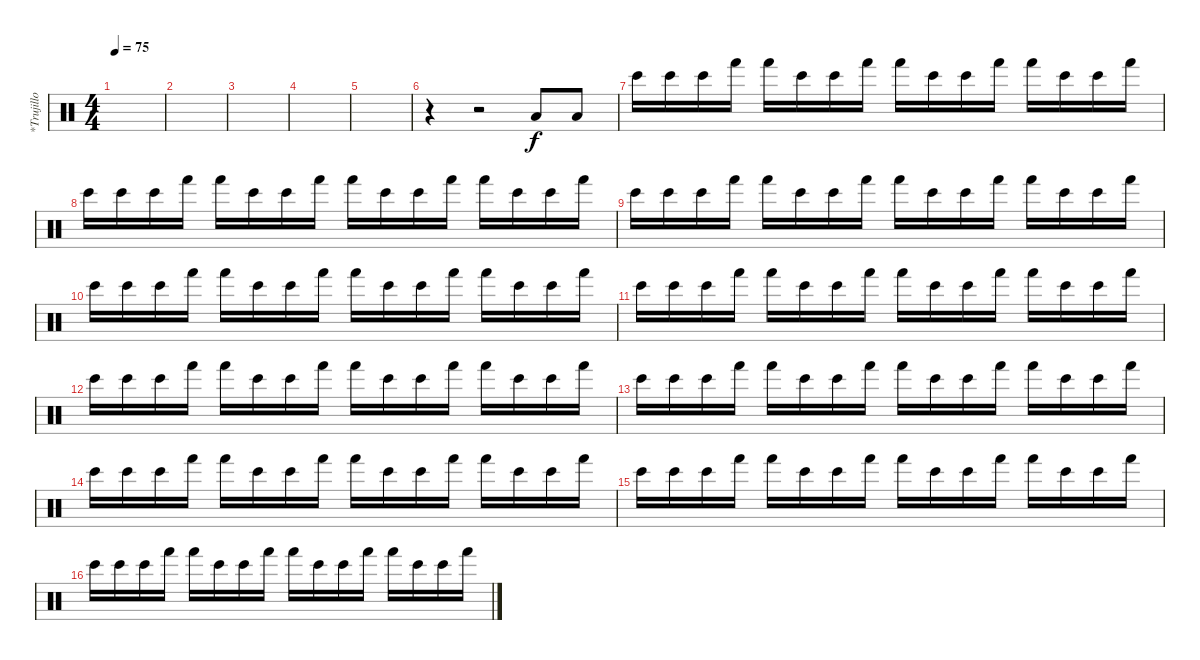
\track ("*Trujillo" "*Trujillo") {instrument percussion}
\staff {score}
\articulation defaults
\ts (4 4)
\tempo 75
\clef neutral
\ks c
|
|
|
|
|
r.4 r.2 "Low Tom (hit)".8 "Low Tom (hit)".8 |
"Bongo High (hit)".16 "Bongo High (hit)".16 "Bongo High (hit)".16 "Hand (hit)".16 "Hand (hit)".16 "Bongo High (hit)".16 "Bongo High (hit)".16 "Hand (hit)".16 "Hand (hit)".16 "Bongo High (hit)".16 "Bongo High (hit)".16 "Hand (hit)".16 "Hand (hit)".16 "Bongo High (hit)".16 "Bongo High (hit)".16 "Hand (hit)".16 |
"Bongo High (hit)".16 "Bongo High (hit)".16 "Bongo High (hit)".16 "Hand (hit)".16 "Hand (hit)".16 "Bongo High (hit)".16 "Bongo High (hit)".16 "Hand (hit)".16 "Hand (hit)".16 "Bongo High (hit)".16 "Bongo High (hit)".16 "Hand (hit)".16 "Hand (hit)".16 "Bongo High (hit)".16 "Bongo High (hit)".16 "Hand (hit)".16 |
"Bongo High (hit)".16 "Bongo High (hit)".16 "Bongo High (hit)".16 "Hand (hit)".16 "Hand (hit)".16 "Bongo High (hit)".16 "Bongo High (hit)".16 "Hand (hit)".16 "Hand (hit)".16 "Bongo High (hit)".16 "Bongo High (hit)".16 "Hand (hit)".16 "Hand (hit)".16 "Bongo High (hit)".16 "Bongo High (hit)".16 "Hand (hit)".16 |
"Bongo High (hit)".16 "Bongo High (hit)".16 "Bongo High (hit)".16 "Hand (hit)".16 "Hand (hit)".16 "Bongo High (hit)".16 "Bongo High (hit)".16 "Hand (hit)".16 "Hand (hit)".16 "Bongo High (hit)".16 "Bongo High (hit)".16 "Hand (hit)".16 "Hand (hit)".16 "Bongo High (hit)".16 "Bongo High (hit)".16 "Hand (hit)".16 |
"Bongo High (hit)".16 "Bongo High (hit)".16 "Bongo High (hit)".16 "Hand (hit)".16 "Hand (hit)".16 "Bongo High (hit)".16 "Bongo High (hit)".16 "Hand (hit)".16 "Hand (hit)".16 "Bongo High (hit)".16 "Bongo High (hit)".16 "Hand (hit)".16 "Hand (hit)".16 "Bongo High (hit)".16 "Bongo High (hit)".16 "Hand (hit)".16 |
"Bongo High (hit)".16 "Bongo High (hit)".16 "Bongo High (hit)".16 "Hand (hit)".16 "Hand (hit)".16 "Bongo High (hit)".16 "Bongo High (hit)".16 "Hand (hit)".16 "Hand (hit)".16 "Bongo High (hit)".16 "Bongo High (hit)".16 "Hand (hit)".16 "Hand (hit)".16 "Bongo High (hit)".16 "Bongo High (hit)".16 "Hand (hit)".16 |
"Bongo High (hit)".16 "Bongo High (hit)".16 "Bongo High (hit)".16 "Hand (hit)".16 "Hand (hit)".16 "Bongo High (hit)".16 "Bongo High (hit)".16 "Hand (hit)".16 "Hand (hit)".16 "Bongo High (hit)".16 "Bongo High (hit)".16 "Hand (hit)".16 "Hand (hit)".16 "Bongo High (hit)".16 "Bongo High (hit)".16 "Hand (hit)".16 |
"Bongo High (hit)".16 "Bongo High (hit)".16 "Bongo High (hit)".16 "Hand (hit)".16 "Hand (hit)".16 "Bongo High (hit)".16 "Bongo High (hit)".16 "Hand (hit)".16 "Hand (hit)".16 "Bongo High (hit)".16 "Bongo High (hit)".16 "Hand (hit)".16 "Hand (hit)".16 "Bongo High (hit)".16 "Bongo High (hit)".16 "Hand (hit)".16 |
"Bongo High (hit)".16 "Bongo High (hit)".16 "Bongo High (hit)".16 "Hand (hit)".16 "Hand (hit)".16 "Bongo High (hit)".16 "Bongo High (hit)".16 "Hand (hit)".16 "Hand (hit)".16 "Bongo High (hit)".16 "Bongo High (hit)".16 "Hand (hit)".16 "Hand (hit)".16 "Bongo High (hit)".16 "Bongo High (hit)".16 "Hand (hit)".16 |
"Bongo High (hit)".16 "Bongo High (hit)".16 "Bongo High (hit)".16 "Hand (hit)".16 "Hand (hit)".16 "Bongo High (hit)".16 "Bongo High (hit)".16 "Hand (hit)".16 "Hand (hit)".16 "Bongo High (hit)".16 "Bongo High (hit)".16 "Hand (hit)".16 "Hand (hit)".16 "Bongo High (hit)".16 "Bongo High (hit)".16 "Hand (hit)".16
